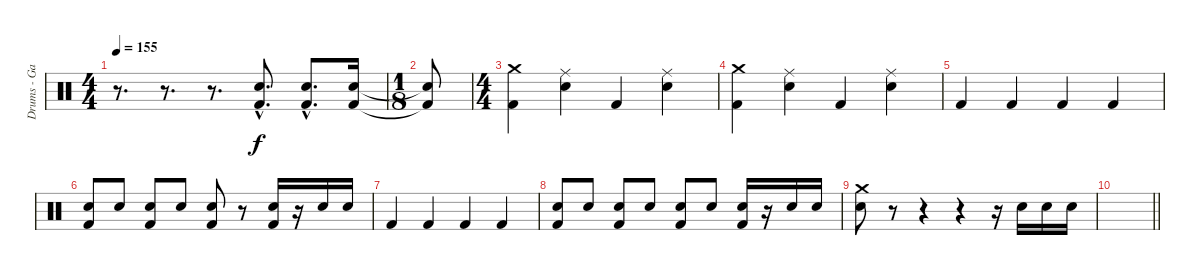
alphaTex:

\track ("Drums - Gary" "Drums - Ga") {instrument percussion}
\staff {score}
\articulation defaults
\ts (4 4)
\tempo 155
\clef neutral
\ks c
r.8{d dy f} r.8{d} r.8{d} ("Snare (hit) 2"{hac} "Kick (hit) 2"{hac}).8{d} ("Snare (hit) 2"{hac} "Kick (hit) 2"{hac}).8{d} ("Snare (hit) 2" "Kick (hit) 2").16 |
\ts (1 8)
("Snare (hit) 2"{t} "Kick (hit) 2"{t}).8 |
\ts (4 4)
("Crash medium (hit)" "Kick (hit) 2").4 ("Snare (hit) 2" "Ride (middle)").4 "Kick (hit) 2".4 ("Snare (hit) 2" "Ride (middle)").4 |
("Crash medium (hit)" "Kick (hit) 2").4 ("Snare (hit) 2" "Ride (middle)").4 "Kick (hit) 2".4 ("Snare (hit) 2" "Ride (middle)").4 |
"Kick (hit) 2".4 "Kick (hit) 2".4 "Kick (hit) 2".4 "Kick (hit) 2".4 |
("Snare (hit) 2" "Kick (hit) 2").8 "Snare (hit) 2".8 ("Snare (hit) 2" "Kick (hit) 2").8 "Snare (hit) 2".8 ("Snare (hit) 2" "Kick (hit) 2").8 r.8 ("Snare (hit) 2" "Kick (hit) 2").16 r.16 "Snare (hit) 2".16 "Snare (hit) 2".16 |
"Kick (hit) 2".4 "Kick (hit) 2".4 "Kick (hit) 2".4 "Kick (hit) 2".4 |
("Snare (hit) 2" "Kick (hit) 2").8 "Snare (hit) 2".8 ("Snare (hit) 2" "Kick (hit) 2").8 "Snare (hit) 2".8 ("Snare (hit) 2" "Kick (hit) 2").8 "Snare (hit) 2".8 ("Snare (hit) 2" "Kick (hit) 2").16 r.16 "Snare (hit) 2".16 "Snare (hit) 2".16 |
("Crash medium (hit)" "Snare (hit) 2").8 r.8 r.4 r.4 r.16 "Snare (hit) 2".16 "Snare (hit) 2".16 "Snare (hit) 2".16 |
\barLineRight lightlight
